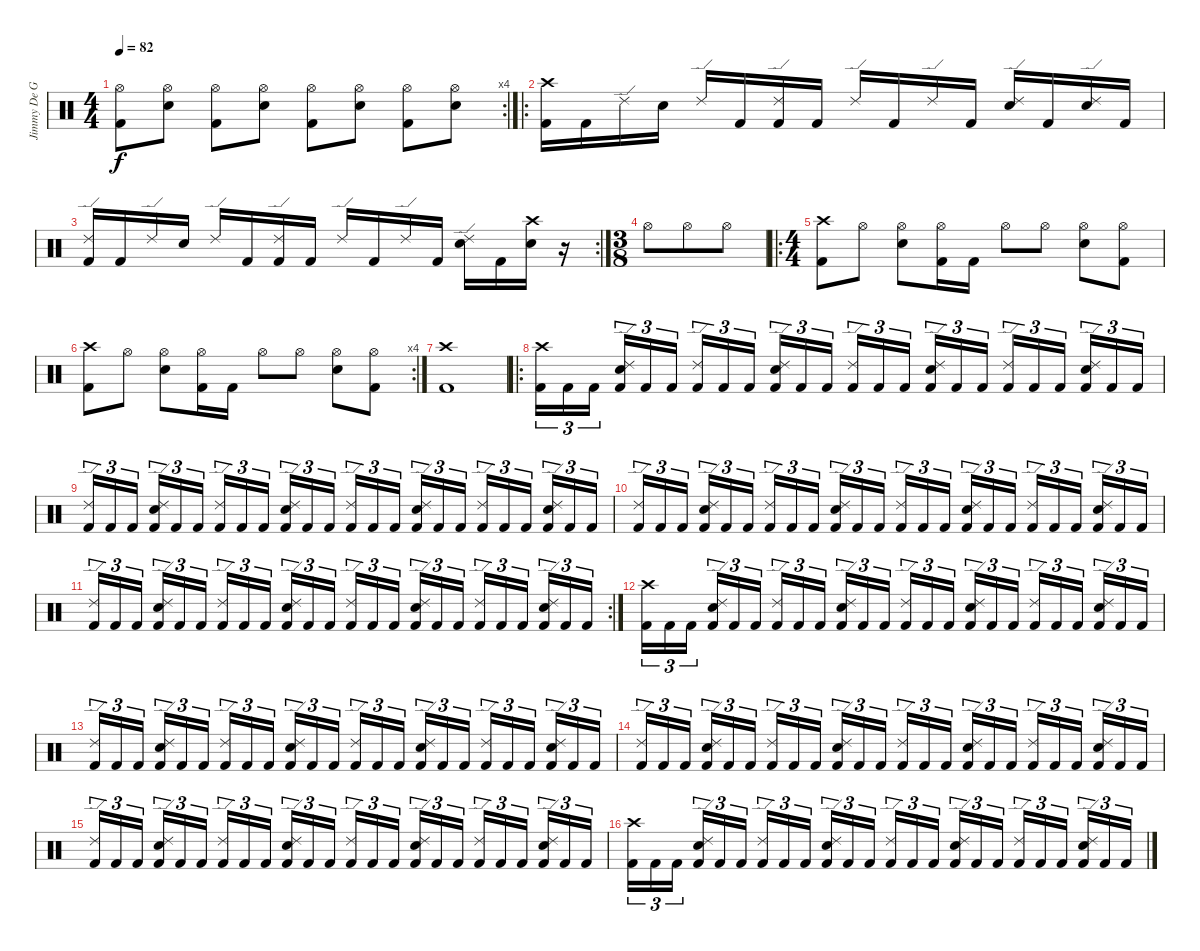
\track ("Jimmy De Grasso" "Jimmy De G") {instrument percussion}
\staff {score}
\articulation defaults
\rc 4
\ts (4 4)
\tempo 82
\clef neutral
\ks c
("Hi-Hat (open)" "Kick (hit) 2").8{dy f} ("Hi-Hat (open)" "Snare (hit) 2").8 ("Hi-Hat (open)" "Kick (hit) 2").8 ("Hi-Hat (open)" "Snare (hit) 2").8 ("Hi-Hat (open)" "Kick (hit) 2").8 ("Hi-Hat (open)" "Snare (hit) 2").8 ("Hi-Hat (open)" "Kick (hit) 2").8 ("Hi-Hat (open)" "Snare (hit) 2").8 |
\ro
("Crash high (hit)" "Kick (hit) 2").16 "Kick (hit) 2".16 "Ride (edge) 2".16 "Snare (hit) 2".16 "Ride (edge) 2".16 "Kick (hit) 2".16 ("Ride (edge) 2" "Kick (hit) 2").16 "Kick (hit) 2".16 "Ride (edge) 2".16 "Kick (hit) 2".16 "Ride (edge) 2".16 "Kick (hit) 2".16 ("Ride (edge) 2" "Snare (hit) 2").16 "Kick (hit) 2".16 ("Ride (edge) 2" "Snare (hit) 2").16 "Kick (hit) 2".16 |
\rc 2
("Ride (edge) 2" "Kick (hit) 2").16 "Kick (hit) 2".16 "Ride (edge) 2".16 "Snare (hit) 2".16 "Ride (edge) 2".16 "Kick (hit) 2".16 ("Ride (edge) 2" "Kick (hit) 2").16 "Kick (hit) 2".16 "Ride (edge) 2".16 "Kick (hit) 2".16 "Ride (edge) 2".16 "Kick (hit) 2".16 ("Ride (edge) 2" "Snare (hit) 2").16 "Kick (hit) 2".16 ("Crash high (hit)" "Snare (hit) 2").16 r.16 |
\ts (3 8)
"Hi-Hat (open)".8 "Hi-Hat (open)".8 "Hi-Hat (open)".8 |
\ro
\ts (4 4)
("Crash high (hit)" "Kick (hit) 2").8 "Hi-Hat (open)".8 ("Hi-Hat (open)" "Snare (hit) 2").8 ("Hi-Hat (open)" "Kick (hit) 2").16 "Kick (hit) 2".16 "Hi-Hat (open)".8 "Hi-Hat (open)".8 ("Hi-Hat (open)" "Snare (hit) 2").8 ("Hi-Hat (open)" "Kick (hit) 2").8 |
\rc 4
("Crash high (hit)" "Kick (hit) 2").8 "Hi-Hat (open)".8 ("Hi-Hat (open)" "Snare (hit) 2").8 ("Hi-Hat (open)" "Kick (hit) 2").16 "Kick (hit) 2".16 "Hi-Hat (open)".8 "Hi-Hat (open)".8 ("Hi-Hat (open)" "Snare (hit) 2").8 ("Hi-Hat (open)" "Kick (hit) 2").8 |
("Crash high (hit)" "Kick (hit) 2").1 |
\ro
("Crash high (hit)" "Kick (hit) 2").16{tu (3 2)} "Kick (hit) 2".16{tu (3 2)} "Kick (hit) 2".16{tu (3 2)} ("Ride (edge) 2" "Snare (hit) 2" "Kick (hit) 2").16{tu (3 2)} "Kick (hit) 2".16{tu (3 2)} "Kick (hit) 2".16{tu (3 2)} ("Ride (edge) 2" "Kick (hit) 2").16{tu (3 2)} "Kick (hit) 2".16{tu (3 2)} "Kick (hit) 2".16{tu (3 2)} ("Ride (edge) 2" "Snare (hit) 2" "Kick (hit) 2").16{tu (3 2)} "Kick (hit) 2".16{tu (3 2)} "Kick (hit) 2".16{tu (3 2)} ("Ride (edge) 2" "Kick (hit) 2").16{tu (3 2)} "Kick (hit) 2".16{tu (3 2)} "Kick (hit) 2".16{tu (3 2)} ("Ride (edge) 2" "Snare (hit) 2" "Kick (hit) 2").16{tu (3 2)} "Kick (hit) 2".16{tu (3 2)} "Kick (hit) 2".16{tu (3 2)} ("Ride (edge) 2" "Kick (hit) 2").16{tu (3 2)} "Kick (hit) 2".16{tu (3 2)} "Kick (hit) 2".16{tu (3 2)} ("Ride (edge) 2" "Snare (hit) 2" "Kick (hit) 2").16{tu (3 2)} "Kick (hit) 2".16{tu (3 2)} "Kick (hit) 2".16{tu (3 2)} |
("Ride (edge) 2" "Kick (hit) 2").16{tu (3 2)} "Kick (hit) 2".16{tu (3 2)} "Kick (hit) 2".16{tu (3 2)} ("Ride (edge) 2" "Snare (hit) 2" "Kick (hit) 2").16{tu (3 2)} "Kick (hit) 2".16{tu (3 2)} "Kick (hit) 2".16{tu (3 2)} ("Ride (edge) 2" "Kick (hit) 2").16{tu (3 2)} "Kick (hit) 2".16{tu (3 2)} "Kick (hit) 2".16{tu (3 2)} ("Ride (edge) 2" "Snare (hit) 2" "Kick (hit) 2").16{tu (3 2)} "Kick (hit) 2".16{tu (3 2)} "Kick (hit) 2".16{tu (3 2)} ("Ride (edge) 2" "Kick (hit) 2").16{tu (3 2)} "Kick (hit) 2".16{tu (3 2)} "Kick (hit) 2".16{tu (3 2)} ("Ride (edge) 2" "Snare (hit) 2" "Kick (hit) 2").16{tu (3 2)} "Kick (hit) 2".16{tu (3 2)} "Kick (hit) 2".16{tu (3 2)} ("Ride (edge) 2" "Kick (hit) 2").16{tu (3 2)} "Kick (hit) 2".16{tu (3 2)} "Kick (hit) 2".16{tu (3 2)} ("Ride (edge) 2" "Snare (hit) 2" "Kick (hit) 2").16{tu (3 2)} "Kick (hit) 2".16{tu (3 2)} "Kick (hit) 2".16{tu (3 2)} |
("Ride (edge) 2" "Kick (hit) 2").16{tu (3 2)} "Kick (hit) 2".16{tu (3 2)} "Kick (hit) 2".16{tu (3 2)} ("Ride (edge) 2" "Snare (hit) 2" "Kick (hit) 2").16{tu (3 2)} "Kick (hit) 2".16{tu (3 2)} "Kick (hit) 2".16{tu (3 2)} ("Ride (edge) 2" "Kick (hit) 2").16{tu (3 2)} "Kick (hit) 2".16{tu (3 2)} "Kick (hit) 2".16{tu (3 2)} ("Ride (edge) 2" "Snare (hit) 2" "Kick (hit) 2").16{tu (3 2)} "Kick (hit) 2".16{tu (3 2)} "Kick (hit) 2".16{tu (3 2)} ("Ride (edge) 2" "Kick (hit) 2").16{tu (3 2)} "Kick (hit) 2".16{tu (3 2)} "Kick (hit) 2".16{tu (3 2)} ("Ride (edge) 2" "Snare (hit) 2" "Kick (hit) 2").16{tu (3 2)} "Kick (hit) 2".16{tu (3 2)} "Kick (hit) 2".16{tu (3 2)} ("Ride (edge) 2" "Kick (hit) 2").16{tu (3 2)} "Kick (hit) 2".16{tu (3 2)} "Kick (hit) 2".16{tu (3 2)} ("Ride (edge) 2" "Snare (hit) 2" "Kick (hit) 2").16{tu (3 2)} "Kick (hit) 2".16{tu (3 2)} "Kick (hit) 2".16{tu (3 2)} |
\rc 2
("Ride (edge) 2" "Kick (hit) 2").16{tu (3 2)} "Kick (hit) 2".16{tu (3 2)} "Kick (hit) 2".16{tu (3 2)} ("Ride (edge) 2" "Snare (hit) 2" "Kick (hit) 2").16{tu (3 2)} "Kick (hit) 2".16{tu (3 2)} "Kick (hit) 2".16{tu (3 2)} ("Ride (edge) 2" "Kick (hit) 2").16{tu (3 2)} "Kick (hit) 2".16{tu (3 2)} "Kick (hit) 2".16{tu (3 2)} ("Ride (edge) 2" "Snare (hit) 2" "Kick (hit) 2").16{tu (3 2)} "Kick (hit) 2".16{tu (3 2)} "Kick (hit) 2".16{tu (3 2)} ("Ride (edge) 2" "Kick (hit) 2").16{tu (3 2)} "Kick (hit) 2".16{tu (3 2)} "Kick (hit) 2".16{tu (3 2)} ("Ride (edge) 2" "Snare (hit) 2" "Kick (hit) 2").16{tu (3 2)} "Kick (hit) 2".16{tu (3 2)} "Kick (hit) 2".16{tu (3 2)} ("Ride (edge) 2" "Kick (hit) 2").16{tu (3 2)} "Kick (hit) 2".16{tu (3 2)} "Kick (hit) 2".16{tu (3 2)} ("Ride (edge) 2" "Snare (hit) 2" "Kick (hit) 2").16{tu (3 2)} "Kick (hit) 2".16{tu (3 2)} "Kick (hit) 2".16{tu (3 2)} |
("Crash high (hit)" "Kick (hit) 2").16{tu (3 2)} "Kick (hit) 2".16{tu (3 2)} "Kick (hit) 2".16{tu (3 2)} ("Ride (edge) 2" "Snare (hit) 2" "Kick (hit) 2").16{tu (3 2)} "Kick (hit) 2".16{tu (3 2)} "Kick (hit) 2".16{tu (3 2)} ("Ride (edge) 2" "Kick (hit) 2").16{tu (3 2)} "Kick (hit) 2".16{tu (3 2)} "Kick (hit) 2".16{tu (3 2)} ("Ride (edge) 2" "Snare (hit) 2" "Kick (hit) 2").16{tu (3 2)} "Kick (hit) 2".16{tu (3 2)} "Kick (hit) 2".16{tu (3 2)} ("Ride (edge) 2" "Kick (hit) 2").16{tu (3 2)} "Kick (hit) 2".16{tu (3 2)} "Kick (hit) 2".16{tu (3 2)} ("Ride (edge) 2" "Snare (hit) 2" "Kick (hit) 2").16{tu (3 2)} "Kick (hit) 2".16{tu (3 2)} "Kick (hit) 2".16{tu (3 2)} ("Ride (edge) 2" "Kick (hit) 2").16{tu (3 2)} "Kick (hit) 2".16{tu (3 2)} "Kick (hit) 2".16{tu (3 2)} ("Ride (edge) 2" "Snare (hit) 2" "Kick (hit) 2").16{tu (3 2)} "Kick (hit) 2".16{tu (3 2)} "Kick (hit) 2".16{tu (3 2)} |
("Ride (edge) 2" "Kick (hit) 2").16{tu (3 2)} "Kick (hit) 2".16{tu (3 2)} "Kick (hit) 2".16{tu (3 2)} ("Ride (edge) 2" "Snare (hit) 2" "Kick (hit) 2").16{tu (3 2)} "Kick (hit) 2".16{tu (3 2)} "Kick (hit) 2".16{tu (3 2)} ("Ride (edge) 2" "Kick (hit) 2").16{tu (3 2)} "Kick (hit) 2".16{tu (3 2)} "Kick (hit) 2".16{tu (3 2)} ("Ride (edge) 2" "Snare (hit) 2" "Kick (hit) 2").16{tu (3 2)} "Kick (hit) 2".16{tu (3 2)} "Kick (hit) 2".16{tu (3 2)} ("Ride (edge) 2" "Kick (hit) 2").16{tu (3 2)} "Kick (hit) 2".16{tu (3 2)} "Kick (hit) 2".16{tu (3 2)} ("Ride (edge) 2" "Snare (hit) 2" "Kick (hit) 2").16{tu (3 2)} "Kick (hit) 2".16{tu (3 2)} "Kick (hit) 2".16{tu (3 2)} ("Ride (edge) 2" "Kick (hit) 2").16{tu (3 2)} "Kick (hit) 2".16{tu (3 2)} "Kick (hit) 2".16{tu (3 2)} ("Ride (edge) 2" "Snare (hit) 2" "Kick (hit) 2").16{tu (3 2)} "Kick (hit) 2".16{tu (3 2)} "Kick (hit) 2".16{tu (3 2)} |
("Ride (edge) 2" "Kick (hit) 2").16{tu (3 2)} "Kick (hit) 2".16{tu (3 2)} "Kick (hit) 2".16{tu (3 2)} ("Ride (edge) 2" "Snare (hit) 2" "Kick (hit) 2").16{tu (3 2)} "Kick (hit) 2".16{tu (3 2)} "Kick (hit) 2".16{tu (3 2)} ("Ride (edge) 2" "Kick (hit) 2").16{tu (3 2)} "Kick (hit) 2".16{tu (3 2)} "Kick (hit) 2".16{tu (3 2)} ("Ride (edge) 2" "Snare (hit) 2" "Kick (hit) 2").16{tu (3 2)} "Kick (hit) 2".16{tu (3 2)} "Kick (hit) 2".16{tu (3 2)} ("Ride (edge) 2" "Kick (hit) 2").16{tu (3 2)} "Kick (hit) 2".16{tu (3 2)} "Kick (hit) 2".16{tu (3 2)} ("Ride (edge) 2" "Snare (hit) 2" "Kick (hit) 2").16{tu (3 2)} "Kick (hit) 2".16{tu (3 2)} "Kick (hit) 2".16{tu (3 2)} ("Ride (edge) 2" "Kick (hit) 2").16{tu (3 2)} "Kick (hit) 2".16{tu (3 2)} "Kick (hit) 2".16{tu (3 2)} ("Ride (edge) 2" "Snare (hit) 2" "Kick (hit) 2").16{tu (3 2)} "Kick (hit) 2".16{tu (3 2)} "Kick (hit) 2".16{tu (3 2)} |
("Ride (edge) 2" "Kick (hit) 2").16{tu (3 2)} "Kick (hit) 2".16{tu (3 2)} "Kick (hit) 2".16{tu (3 2)} ("Ride (edge) 2" "Snare (hit) 2" "Kick (hit) 2").16{tu (3 2)} "Kick (hit) 2".16{tu (3 2)} "Kick (hit) 2".16{tu (3 2)} ("Ride (edge) 2" "Kick (hit) 2").16{tu (3 2)} "Kick (hit) 2".16{tu (3 2)} "Kick (hit) 2".16{tu (3 2)} ("Ride (edge) 2" "Snare (hit) 2" "Kick (hit) 2").16{tu (3 2)} "Kick (hit) 2".16{tu (3 2)} "Kick (hit) 2".16{tu (3 2)} ("Ride (edge) 2" "Kick (hit) 2").16{tu (3 2)} "Kick (hit) 2".16{tu (3 2)} "Kick (hit) 2".16{tu (3 2)} ("Ride (edge) 2" "Snare (hit) 2" "Kick (hit) 2").16{tu (3 2)} "Kick (hit) 2".16{tu (3 2)} "Kick (hit) 2".16{tu (3 2)} ("Ride (edge) 2" "Kick (hit) 2").16{tu (3 2)} "Kick (hit) 2".16{tu (3 2)} "Kick (hit) 2".16{tu (3 2)} ("Ride (edge) 2" "Snare (hit) 2" "Kick (hit) 2").16{tu (3 2)} "Kick (hit) 2".16{tu (3 2)} "Kick (hit) 2".16{tu (3 2)} |
("Crash high (hit)" "Kick (hit) 2").16{tu (3 2)} "Kick (hit) 2".16{tu (3 2)} "Kick (hit) 2".16{tu (3 2)} ("Ride (edge) 2" "Snare (hit) 2" "Kick (hit) 2").16{tu (3 2)} "Kick (hit) 2".16{tu (3 2)} "Kick (hit) 2".16{tu (3 2)} ("Ride (edge) 2" "Kick (hit) 2").16{tu (3 2)} "Kick (hit) 2".16{tu (3 2)} "Kick (hit) 2".16{tu (3 2)} ("Ride (edge) 2" "Snare (hit) 2" "Kick (hit) 2").16{tu (3 2)} "Kick (hit) 2".16{tu (3 2)} "Kick (hit) 2".16{tu (3 2)} ("Ride (edge) 2" "Kick (hit) 2").16{tu (3 2)} "Kick (hit) 2".16{tu (3 2)} "Kick (hit) 2".16{tu (3 2)} ("Ride (edge) 2" "Snare (hit) 2" "Kick (hit) 2").16{tu (3 2)} "Kick (hit) 2".16{tu (3 2)} "Kick (hit) 2".16{tu (3 2)} ("Ride (edge) 2" "Kick (hit) 2").16{tu (3 2)} "Kick (hit) 2".16{tu (3 2)} "Kick (hit) 2".16{tu (3 2)} ("Ride (edge) 2" "Snare (hit) 2" "Kick (hit) 2").16{tu (3 2)} "Kick (hit) 2".16{tu (3 2)} "Kick (hit) 2".16{tu (3 2)}
